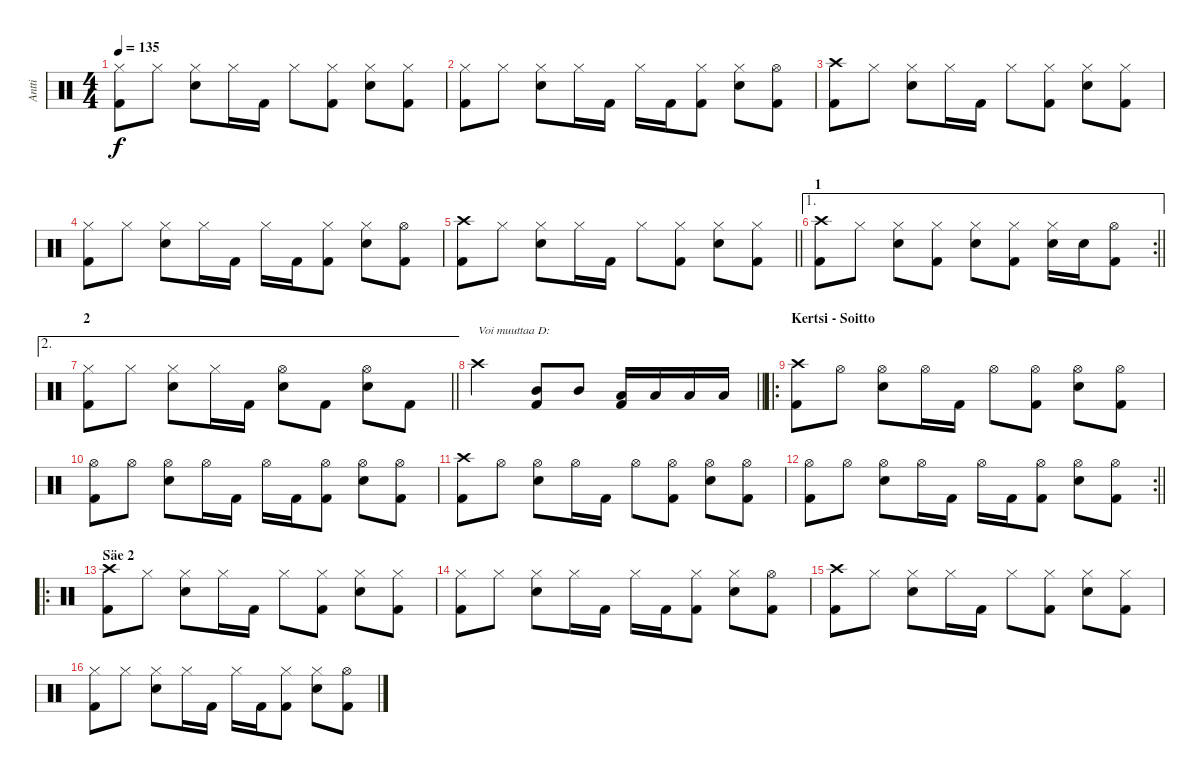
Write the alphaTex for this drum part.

\track ("Antti" "Antti") {instrument percussion}
\staff {score}
\articulation defaults
\ts (4 4)
\tempo 135
\clef neutral
\ks c
("Hi-Hat (closed)" "Kick (hit) 2").8{dy f} "Hi-Hat (closed)".8 ("Hi-Hat (closed)" "Snare (hit) 2").8 "Hi-Hat (closed)".16 "Kick (hit) 2".16 "Hi-Hat (closed)".8 ("Hi-Hat (closed)" "Kick (hit) 2").8 ("Hi-Hat (closed)" "Snare (hit) 2").8 ("Hi-Hat (closed)" "Kick (hit) 2").8 |
("Hi-Hat (closed)" "Kick (hit) 2").8 "Hi-Hat (closed)".8 ("Hi-Hat (closed)" "Snare (hit) 2").8 "Hi-Hat (closed)".16 "Kick (hit) 2".16 "Hi-Hat (closed)".16 "Kick (hit) 2".16 ("Hi-Hat (closed)" "Kick (hit) 2").8 ("Hi-Hat (closed)" "Snare (hit) 2").8 ("Hi-Hat (open)" "Kick (hit) 2").8 |
("Crash high (hit)" "Kick (hit) 2").8 "Hi-Hat (closed)".8 ("Hi-Hat (closed)" "Snare (hit) 2").8 "Hi-Hat (closed)".16 "Kick (hit) 2".16 "Hi-Hat (closed)".8 ("Hi-Hat (closed)" "Kick (hit) 2").8 ("Hi-Hat (closed)" "Snare (hit) 2").8 ("Hi-Hat (closed)" "Kick (hit) 2").8 |
("Hi-Hat (closed)" "Kick (hit) 2").8 "Hi-Hat (closed)".8 ("Hi-Hat (closed)" "Snare (hit) 2").8 "Hi-Hat (closed)".16 "Kick (hit) 2".16 "Hi-Hat (closed)".16 "Kick (hit) 2".16 ("Hi-Hat (closed)" "Kick (hit) 2").8 ("Hi-Hat (closed)" "Snare (hit) 2").8 ("Hi-Hat (open)" "Kick (hit) 2").8 |
\barLineRight lightlight
("Crash high (hit)" "Kick (hit) 2").8 "Hi-Hat (closed)".8 ("Hi-Hat (closed)" "Snare (hit) 2").8 "Hi-Hat (closed)".16 "Kick (hit) 2".16 "Hi-Hat (closed)".8 ("Hi-Hat (closed)" "Kick (hit) 2").8 ("Hi-Hat (closed)" "Snare (hit) 2").8 ("Hi-Hat (closed)" "Kick (hit) 2").8 |
\ae 1
\rc 2
\section ("" "1")
\barLineRight lightlight
("Crash high (hit)" "Kick (hit) 2").8 "Hi-Hat (closed)".8 ("Hi-Hat (closed)" "Snare (hit) 2").8 ("Hi-Hat (closed)" "Kick (hit) 2").8 ("Hi-Hat (closed)" "Snare (hit) 2").8 ("Hi-Hat (closed)" "Kick (hit) 2").8 ("Hi-Hat (closed)" "Snare (hit) 2").16 "Snare (hit) 2".16 ("Hi-Hat (open)" "Kick (hit) 2").8 |
\ae 2
\section ("" "2")
\barLineRight lightlight
("Hi-Hat (closed)" "Kick (hit) 2").8 "Hi-Hat (closed)".8 ("Hi-Hat (closed)" "Snare (hit) 2").8 "Hi-Hat (closed)".16 "Kick (hit) 2".16 ("Hi-Hat (open)" "Snare (hit) 2").8 "Kick (hit) 2".8 ("Hi-Hat (open)" "Snare (hit) 2").8 "Kick (hit) 2".8 |
\barLineRight lightlight "Crash high (hit)".2{txt "Voi muuttaa D:"}
("Mid Tom (hit)" "Kick (hit) 2").8 "Mid Tom (hit)".8 ("Low Tom (hit)" "Kick (hit) 2").16 "Low Tom (hit)".16 "Low Floor Tom (hit)".16 "Low Floor Tom (hit)".16 |
\ro
\section ("" "Kertsi - Soitto")
("Crash high (hit)" "Kick (hit) 2").8 "Hi-Hat (open)".8 ("Hi-Hat (open)" "Snare (hit) 2").8 "Hi-Hat (open)".16 "Kick (hit) 2".16 "Hi-Hat (open)".8 ("Hi-Hat (open)" "Kick (hit) 2").8 ("Hi-Hat (open)" "Snare (hit) 2").8 ("Hi-Hat (open)" "Kick (hit) 2").8 |
("Hi-Hat (open)" "Kick (hit) 2").8 "Hi-Hat (open)".8 ("Hi-Hat (open)" "Snare (hit) 2").8 "Hi-Hat (open)".16 "Kick (hit) 2".16 "Hi-Hat (open)".16 "Kick (hit) 2".16 ("Hi-Hat (open)" "Kick (hit) 2").8 ("Hi-Hat (open)" "Snare (hit) 2").8 ("Hi-Hat (open)" "Kick (hit) 2").8 |
("Crash high (hit)" "Kick (hit) 2").8 "Hi-Hat (open)".8 ("Hi-Hat (open)" "Snare (hit) 2").8 "Hi-Hat (open)".16 "Kick (hit) 2".16 "Hi-Hat (open)".8 ("Hi-Hat (open)" "Kick (hit) 2").8 ("Hi-Hat (open)" "Snare (hit) 2").8 ("Hi-Hat (open)" "Kick (hit) 2").8 |
\rc 2
\barLineRight lightlight
("Hi-Hat (open)" "Kick (hit) 2").8 "Hi-Hat (open)".8 ("Hi-Hat (open)" "Snare (hit) 2").8 "Hi-Hat (open)".16 "Kick (hit) 2".16 "Hi-Hat (open)".16 "Kick (hit) 2".16 ("Hi-Hat (open)" "Kick (hit) 2").8 ("Hi-Hat (open)" "Snare (hit) 2").8 ("Hi-Hat (open)" "Kick (hit) 2").8 |
\ro
\section ("" "Säe 2")
("Crash high (hit)" "Kick (hit) 2").8 "Hi-Hat (closed)".8 ("Hi-Hat (closed)" "Snare (hit) 2").8 "Hi-Hat (closed)".16 "Kick (hit) 2".16 "Hi-Hat (closed)".8 ("Hi-Hat (closed)" "Kick (hit) 2").8 ("Hi-Hat (closed)" "Snare (hit) 2").8 ("Hi-Hat (closed)" "Kick (hit) 2").8 |
("Hi-Hat (closed)" "Kick (hit) 2").8 "Hi-Hat (closed)".8 ("Hi-Hat (closed)" "Snare (hit) 2").8 "Hi-Hat (closed)".16 "Kick (hit) 2".16 "Hi-Hat (closed)".16 "Kick (hit) 2".16 ("Hi-Hat (closed)" "Kick (hit) 2").8 ("Hi-Hat (closed)" "Snare (hit) 2").8 ("Hi-Hat (open)" "Kick (hit) 2").8 |
("Crash high (hit)" "Kick (hit) 2").8 "Hi-Hat (closed)".8 ("Hi-Hat (closed)" "Snare (hit) 2").8 "Hi-Hat (closed)".16 "Kick (hit) 2".16 "Hi-Hat (closed)".8 ("Hi-Hat (closed)" "Kick (hit) 2").8 ("Hi-Hat (closed)" "Snare (hit) 2").8 ("Hi-Hat (closed)" "Kick (hit) 2").8 |
("Hi-Hat (closed)" "Kick (hit) 2").8 "Hi-Hat (closed)".8 ("Hi-Hat (closed)" "Snare (hit) 2").8 "Hi-Hat (closed)".16 "Kick (hit) 2".16 "Hi-Hat (closed)".16 "Kick (hit) 2".16 ("Hi-Hat (closed)" "Kick (hit) 2").8 ("Hi-Hat (closed)" "Snare (hit) 2").8 ("Hi-Hat (open)" "Kick (hit) 2").8
